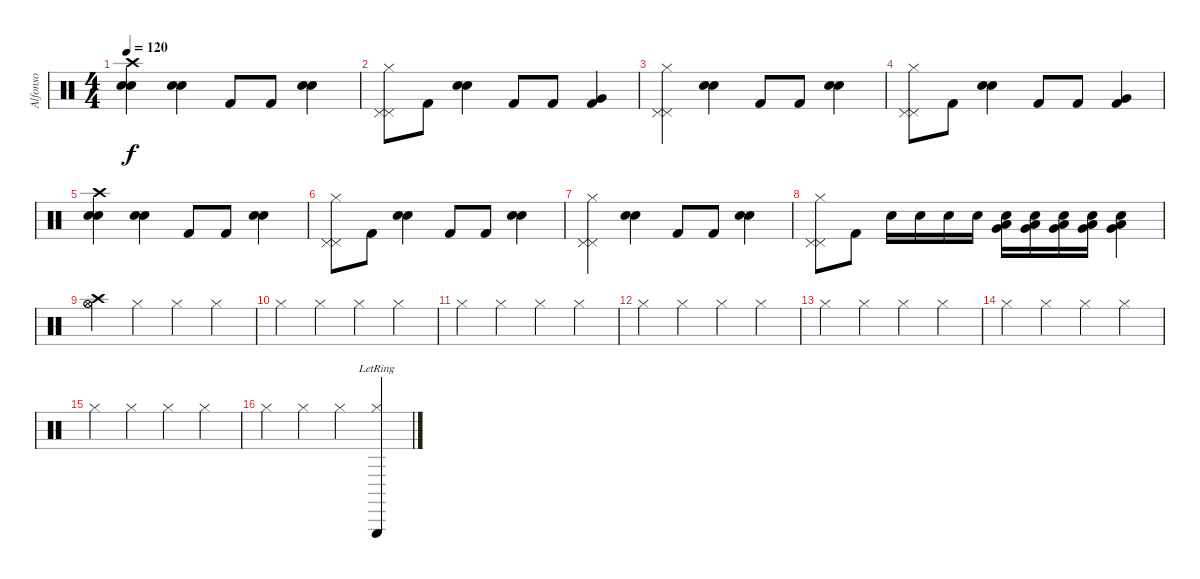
\track ("Alfonso" "Alfonso") {instrument percussion}
\staff {score}
\articulation defaults
\ts (4 4)
\tempo 120
\clef neutral
\ks c
("Snare (hit) 2" "Crash high (hit)" "Electric Snare (hit)").4{dy f} ("Electric Snare (hit)" "Electric Snare (hit)").4 "Kick (hit) 2".8 "Kick (hit) 2".8 ("Electric Snare (hit)" "Electric Snare (hit)").4 |
("Pedal Hi-Hat (hit)" "Hi-Hat (closed)" "Pedal Hi-Hat (hit)").8 "Kick (hit) 2".8 ("Electric Snare (hit)" "Electric Snare (hit)").4 "Kick (hit) 2".8 "Kick (hit) 2".8 ("Kick (hit) 2" "Very Low Tom (hit)").4 |
("Pedal Hi-Hat (hit)" "Pedal Hi-Hat (hit)" "Hi-Hat (closed)").4 ("Electric Snare (hit)" "Electric Snare (hit)").4 "Kick (hit) 2".8 "Kick (hit) 2".8 ("Electric Snare (hit)" "Electric Snare (hit)").4 |
("Pedal Hi-Hat (hit)" "Hi-Hat (closed)" "Pedal Hi-Hat (hit)").8 "Kick (hit) 2".8 ("Electric Snare (hit)" "Electric Snare (hit)").4 "Kick (hit) 2".8 "Kick (hit) 2".8 ("Kick (hit) 2" "Very Low Tom (hit)").4 |
("Snare (hit) 2" "Crash high (hit)" "Electric Snare (hit)").4 ("Electric Snare (hit)" "Electric Snare (hit)").4 "Kick (hit) 2".8 "Kick (hit) 2".8 ("Electric Snare (hit)" "Electric Snare (hit)").4 |
("Pedal Hi-Hat (hit)" "Hi-Hat (closed)" "Pedal Hi-Hat (hit)").8 "Kick (hit) 2".8 ("Electric Snare (hit)" "Electric Snare (hit)").4 "Kick (hit) 2".8 "Kick (hit) 2".8 ("Electric Snare (hit)" "Electric Snare (hit)").4 |
("Pedal Hi-Hat (hit)" "Pedal Hi-Hat (hit)" "Hi-Hat (closed)").4 ("Electric Snare (hit)" "Electric Snare (hit)").4 "Kick (hit) 2".8 "Kick (hit) 2".8 ("Electric Snare (hit)" "Electric Snare (hit)").4 |
("Pedal Hi-Hat (hit)" "Hi-Hat (closed)" "Pedal Hi-Hat (hit)").8 "Kick (hit) 2".8 "Electric Snare (hit)".16 "Electric Snare (hit)".16 "Electric Snare (hit)".16 "Electric Snare (hit)".16 ("Very Low Tom (hit)" "Low Floor Tom (hit)" "Electric Snare (hit)").16 ("Very Low Tom (hit)" "Low Floor Tom (hit)" "Electric Snare (hit)").16 ("Very Low Tom (hit)" "Low Floor Tom (hit)" "Electric Snare (hit)").16 ("Very Low Tom (hit)" "Low Floor Tom (hit)" "Electric Snare (hit)").16 ("Very Low Tom (hit)" "Low Floor Tom (hit)" "Electric Snare (hit)").4 |
("Crash high (hit)" "Hi-Hat (open)" "Hi-Hat (open)").4 "Hi-Hat (closed)".4 "Hi-Hat (closed)".4 "Hi-Hat (closed)".4 |
"Hi-Hat (closed)".4 "Hi-Hat (closed)".4 "Hi-Hat (closed)".4 "Hi-Hat (closed)".4 |
"Hi-Hat (closed)".4 "Hi-Hat (closed)".4 "Hi-Hat (closed)".4 "Hi-Hat (closed)".4 |
"Hi-Hat (closed)".4 "Hi-Hat (closed)".4 "Hi-Hat (closed)".4 "Hi-Hat (closed)".4 |
"Hi-Hat (closed)".4 "Hi-Hat (closed)".4 "Hi-Hat (closed)".4 "Hi-Hat (closed)".4 |
"Hi-Hat (closed)".4 "Hi-Hat (closed)".4 "Hi-Hat (closed)".4 "Hi-Hat (closed)".4 |
"Hi-Hat (closed)".4 "Hi-Hat (closed)".4 "Hi-Hat (closed)".4 "Hi-Hat (closed)".4 |
"Hi-Hat (closed)".4 "Hi-Hat (closed)".4 "Hi-Hat (closed)".4 ("Hi-Hat (closed)"{lr} "Triangle (hit)"{lr}).4
